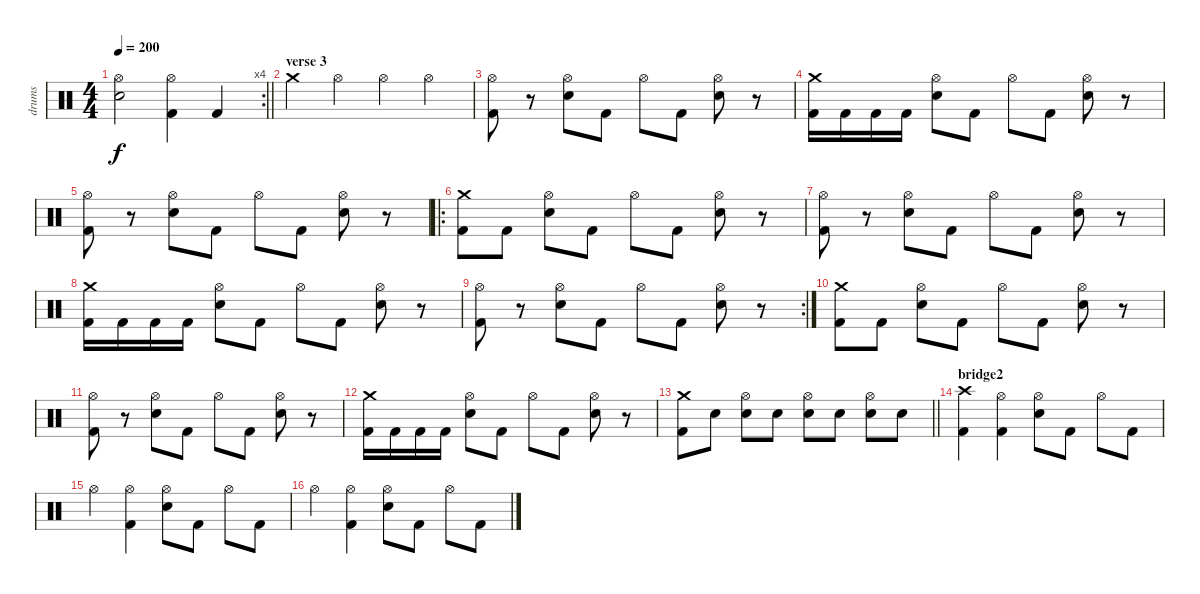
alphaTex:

\track ("drums" "drums") {instrument percussion}
\staff {score}
\articulation defaults
\rc 4
\ts (4 4)
\tempo 200
\clef neutral
\barLineRight lightlight
\ks c
("Hi-Hat (open)" "Electric Snare (hit)").2{dy f} ("Hi-Hat (open)" "Kick (hit) 2").4 "Kick (hit) 2".4 |
\section ("" "verse 3")
"Crash medium (hit)".4 "Hi-Hat (open)".4 "Hi-Hat (open)".4 "Hi-Hat (open)".4 |
("Hi-Hat (open)" "Kick (hit) 2").8 r.8 ("Hi-Hat (open)" "Electric Snare (hit)").8 "Kick (hit) 2".8 "Hi-Hat (open)".8 "Kick (hit) 2".8 ("Hi-Hat (open)" "Electric Snare (hit)").8 r.8 |
("Crash medium (hit)" "Kick (hit) 2").16 "Kick (hit) 2".16 "Kick (hit) 2".16 "Kick (hit) 2".16 ("Hi-Hat (open)" "Electric Snare (hit)").8 "Kick (hit) 2".8 "Hi-Hat (open)".8 "Kick (hit) 2".8 ("Hi-Hat (open)" "Electric Snare (hit)").8 r.8 |
("Hi-Hat (open)" "Kick (hit) 2").8 r.8 ("Hi-Hat (open)" "Electric Snare (hit)").8 "Kick (hit) 2".8 "Hi-Hat (open)".8 "Kick (hit) 2".8 ("Hi-Hat (open)" "Electric Snare (hit)").8 r.8 |
\ro
("Crash medium (hit)" "Kick (hit) 2").8 "Kick (hit) 2".8 ("Hi-Hat (open)" "Electric Snare (hit)").8 "Kick (hit) 2".8 "Hi-Hat (open)".8 "Kick (hit) 2".8 ("Hi-Hat (open)" "Electric Snare (hit)").8 r.8 |
("Hi-Hat (open)" "Kick (hit) 2").8 r.8 ("Hi-Hat (open)" "Electric Snare (hit)").8 "Kick (hit) 2".8 "Hi-Hat (open)".8 "Kick (hit) 2".8 ("Hi-Hat (open)" "Electric Snare (hit)").8 r.8 |
("Crash medium (hit)" "Kick (hit) 2").16 "Kick (hit) 2".16 "Kick (hit) 2".16 "Kick (hit) 2".16 ("Hi-Hat (open)" "Electric Snare (hit)").8 "Kick (hit) 2".8 "Hi-Hat (open)".8 "Kick (hit) 2".8 ("Hi-Hat (open)" "Electric Snare (hit)").8 r.8 |
\rc 2
("Hi-Hat (open)" "Kick (hit) 2").8 r.8 ("Hi-Hat (open)" "Electric Snare (hit)").8 "Kick (hit) 2".8 "Hi-Hat (open)".8 "Kick (hit) 2".8 ("Hi-Hat (open)" "Electric Snare (hit)").8 r.8 |
("Crash medium (hit)" "Kick (hit) 2").8 "Kick (hit) 2".8 ("Hi-Hat (open)" "Electric Snare (hit)").8 "Kick (hit) 2".8 "Hi-Hat (open)".8 "Kick (hit) 2".8 ("Hi-Hat (open)" "Electric Snare (hit)").8 r.8 |
("Hi-Hat (open)" "Kick (hit) 2").8 r.8 ("Hi-Hat (open)" "Electric Snare (hit)").8 "Kick (hit) 2".8 "Hi-Hat (open)".8 "Kick (hit) 2".8 ("Hi-Hat (open)" "Electric Snare (hit)").8 r.8 |
("Crash medium (hit)" "Kick (hit) 2").16 "Kick (hit) 2".16 "Kick (hit) 2".16 "Kick (hit) 2".16 ("Hi-Hat (open)" "Electric Snare (hit)").8 "Kick (hit) 2".8 "Hi-Hat (open)".8 "Kick (hit) 2".8 ("Hi-Hat (open)" "Electric Snare (hit)").8 r.8 |
\barLineRight lightlight
("Crash medium (hit)" "Kick (hit) 2").8 "Electric Snare (hit)".8 ("Hi-Hat (open)" "Electric Snare (hit)").8 "Electric Snare (hit)".8 ("Hi-Hat (open)" "Electric Snare (hit)").8 "Electric Snare (hit)".8 ("Hi-Hat (open)" "Electric Snare (hit)").8 "Electric Snare (hit)".8 |
\section ("" "bridge2")
("Crash high (hit)" "Kick (hit) 2").4 ("Hi-Hat (open)" "Kick (hit) 2").4 ("Hi-Hat (open)" "Electric Snare (hit)").8 "Kick (hit) 2".8 "Hi-Hat (open)".8 "Kick (hit) 2".8 |
"Hi-Hat (open)".4 ("Hi-Hat (open)" "Kick (hit) 2").4 ("Hi-Hat (open)" "Electric Snare (hit)").8 "Kick (hit) 2".8 "Hi-Hat (open)".8 "Kick (hit) 2".8 |
"Hi-Hat (open)".4 ("Hi-Hat (open)" "Kick (hit) 2").4 ("Hi-Hat (open)" "Electric Snare (hit)").8 "Kick (hit) 2".8 "Hi-Hat (open)".8 "Kick (hit) 2".8
